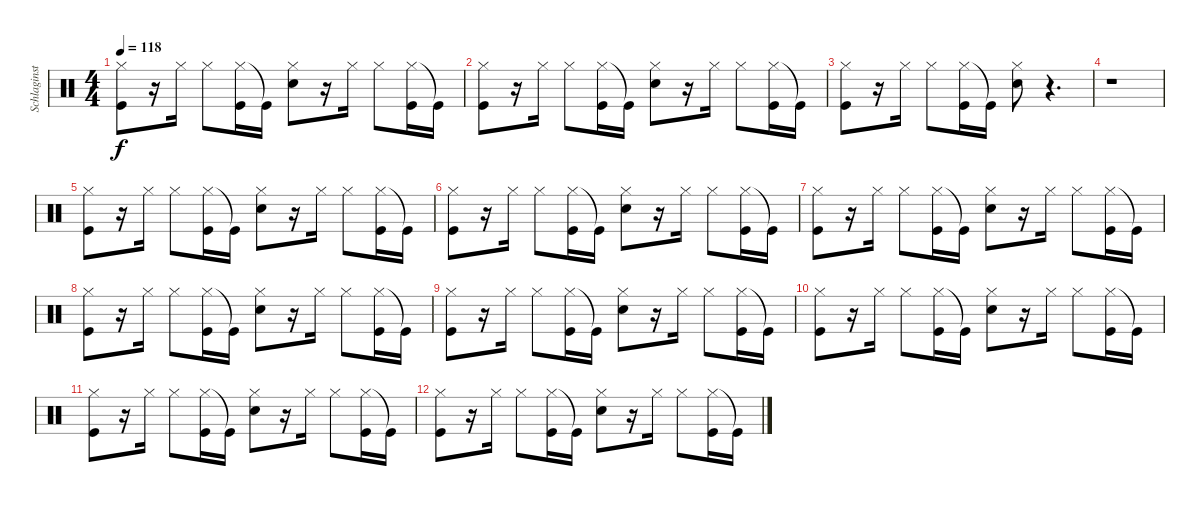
\track ("Schlaginstrumente - Auswahl" "Schlaginst") {instrument percussion}
\staff {score}
\articulation defaults
\ts (4 4)
\tempo 118
\clef neutral
\ks c
("Hi-Hat (closed)" "Kick (hit)").8{dy f} r.16 "Hi-Hat (closed)".16 "Hi-Hat (closed)".8 ("Hi-Hat (closed)" "Kick (hit)").16 "Kick (hit)"{t}.16 ("Hi-Hat (closed)" "Hand Clap (hit)").8 r.16 "Hi-Hat (closed)".16 "Hi-Hat (closed)".8 ("Hi-Hat (closed)" "Kick (hit)").16 "Kick (hit)"{t}.16 |
("Hi-Hat (closed)" "Kick (hit)").8 r.16 "Hi-Hat (closed)".16 "Hi-Hat (closed)".8 ("Hi-Hat (closed)" "Kick (hit)").16 "Kick (hit)"{t}.16 ("Hi-Hat (closed)" "Hand Clap (hit)").8 r.16 "Hi-Hat (closed)".16 "Hi-Hat (closed)".8 ("Hi-Hat (closed)" "Kick (hit)").16 "Kick (hit)"{t}.16 |
("Kick (hit)" "Hi-Hat (closed)").8 r.16 "Hi-Hat (closed)".16 "Hi-Hat (closed)".8 ("Hi-Hat (closed)" "Kick (hit)").16 "Kick (hit)"{t}.16 ("Hi-Hat (closed)" "Hand Clap (hit)").8 r.4{d} |
r.1 |
("Kick (hit)" "Hi-Hat (closed)").8 r.16 "Hi-Hat (closed)".16 "Hi-Hat (closed)".8 ("Hi-Hat (closed)" "Kick (hit)").16 "Kick (hit)"{t}.16 ("Hi-Hat (closed)" "Hand Clap (hit)").8 r.16 "Hi-Hat (closed)".16 "Hi-Hat (closed)".8 ("Hi-Hat (closed)" "Kick (hit)").16 "Kick (hit)"{t}.16 |
("Hi-Hat (closed)" "Kick (hit)").8 r.16 "Hi-Hat (closed)".16 "Hi-Hat (closed)".8 ("Hi-Hat (closed)" "Kick (hit)").16 "Kick (hit)"{t}.16 ("Hi-Hat (closed)" "Hand Clap (hit)").8 r.16 "Hi-Hat (closed)".16 "Hi-Hat (closed)".8 ("Hi-Hat (closed)" "Kick (hit)").16 "Kick (hit)"{t}.16 |
("Kick (hit)" "Hi-Hat (closed)").8 r.16 "Hi-Hat (closed)".16 "Hi-Hat (closed)".8 ("Hi-Hat (closed)" "Kick (hit)").16 "Kick (hit)"{t}.16 ("Hi-Hat (closed)" "Hand Clap (hit)").8 r.16 "Hi-Hat (closed)".16 "Hi-Hat (closed)".8 ("Hi-Hat (closed)" "Kick (hit)").16 "Kick (hit)"{t}.16 |
("Kick (hit)" "Hi-Hat (closed)").8 r.16 "Hi-Hat (closed)".16 "Hi-Hat (closed)".8 ("Hi-Hat (closed)" "Kick (hit)").16 "Kick (hit)"{t}.16 ("Hi-Hat (closed)" "Hand Clap (hit)").8 r.16 "Hi-Hat (closed)".16 "Hi-Hat (closed)".8 ("Hi-Hat (closed)" "Kick (hit)").16 "Kick (hit)"{t}.16 |
("Hi-Hat (closed)" "Kick (hit)").8 r.16 "Hi-Hat (closed)".16 "Hi-Hat (closed)".8 ("Hi-Hat (closed)" "Kick (hit)").16 "Kick (hit)"{t}.16 ("Hi-Hat (closed)" "Hand Clap (hit)").8 r.16 "Hi-Hat (closed)".16 "Hi-Hat (closed)".8 ("Hi-Hat (closed)" "Kick (hit)").16 "Kick (hit)"{t}.16 |
("Kick (hit)" "Hi-Hat (closed)").8 r.16 "Hi-Hat (closed)".16 "Hi-Hat (closed)".8 ("Hi-Hat (closed)" "Kick (hit)").16 "Kick (hit)"{t}.16 ("Hi-Hat (closed)" "Hand Clap (hit)").8 r.16 "Hi-Hat (closed)".16 "Hi-Hat (closed)".8 ("Hi-Hat (closed)" "Kick (hit)").16 "Kick (hit)"{t}.16 |
("Hi-Hat (closed)" "Kick (hit)").8 r.16 "Hi-Hat (closed)".16 "Hi-Hat (closed)".8 ("Hi-Hat (closed)" "Kick (hit)").16 "Kick (hit)"{t}.16 ("Hi-Hat (closed)" "Hand Clap (hit)").8 r.16 "Hi-Hat (closed)".16 "Hi-Hat (closed)".8 ("Hi-Hat (closed)" "Kick (hit)").16 "Kick (hit)"{t}.16 |
("Kick (hit)" "Hi-Hat (closed)").8 r.16 "Hi-Hat (closed)".16 "Hi-Hat (closed)".8 ("Hi-Hat (closed)" "Kick (hit)").16 "Kick (hit)"{t}.16 ("Hi-Hat (closed)" "Hand Clap (hit)").8 r.16 "Hi-Hat (closed)".16 "Hi-Hat (closed)".8 ("Hi-Hat (closed)" "Kick (hit)").16 "Kick (hit)"{t}.16
